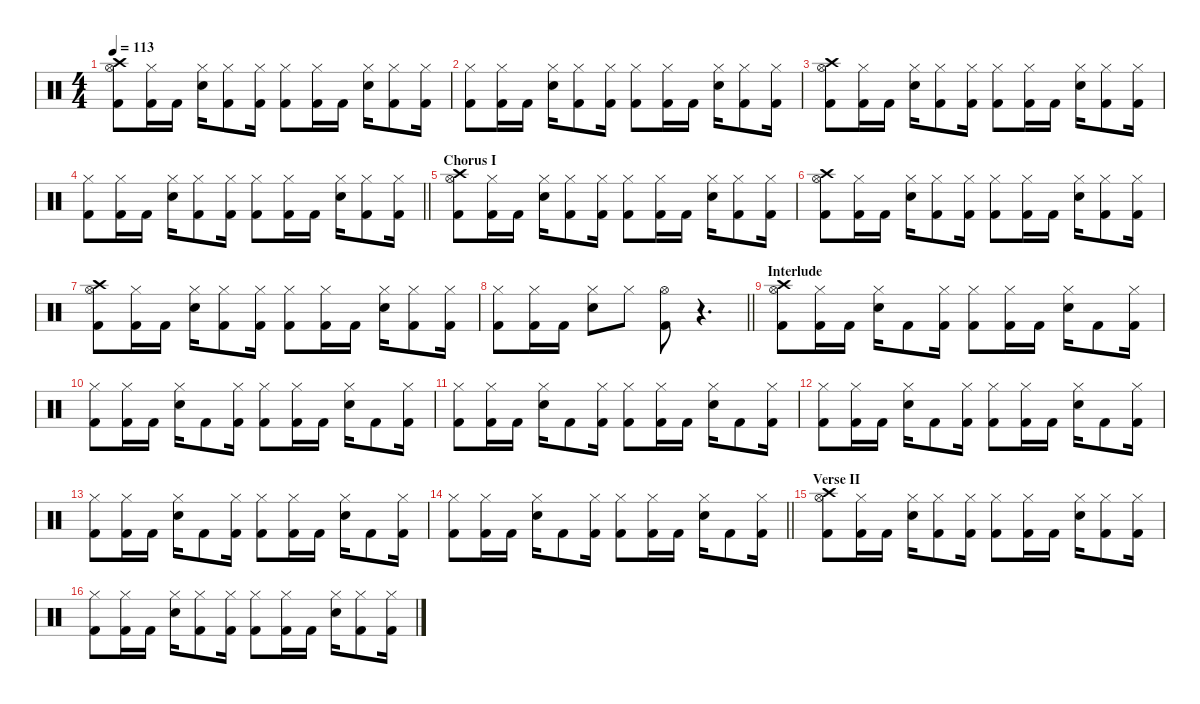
\defaultSystemsLayout 4
\hideDynamics
\bracketExtendMode nobrackets
\singleTrackTrackNamePolicy hidden
\multiTrackTrackNamePolicy hidden
\firstSystemTrackNameMode fullname
\firstSystemTrackNameOrientation horizontal
\otherSystemsTrackNameOrientation horizontal
\track ("Drums" "drm.") {instrument percussion}
\staff {score}
\articulation defaults
\ts (4 4)
\tempo 113
\clef neutral
\ks c
("Crash high (hit)" "Hi-Hat (open)" "Kick (hit) 2").8{dy f beam Down} ("Hi-Hat (closed)" "Kick (hit) 2").16{beam Down} "Kick (hit) 2".16{beam Down} ("Hi-Hat (closed)" "Snare (hit) 2").16{beam Down} ("Hi-Hat (closed)" "Kick (hit) 2").8{beam Down} ("Hi-Hat (closed)" "Kick (hit) 2").16{beam Down} ("Hi-Hat (closed)" "Kick (hit) 2").8{beam Down} ("Hi-Hat (closed)" "Kick (hit) 2").16{beam Down} "Kick (hit) 2".16{beam Down} ("Hi-Hat (closed)" "Snare (hit) 2").16{beam Down} ("Hi-Hat (closed)" "Kick (hit) 2").8{beam Down} ("Hi-Hat (closed)" "Kick (hit) 2").16{beam Down} |
("Hi-Hat (closed)" "Kick (hit) 2").8{beam Down} ("Hi-Hat (closed)" "Kick (hit) 2").16{beam Down} "Kick (hit) 2".16{beam Down} ("Hi-Hat (closed)" "Snare (hit) 2").16{beam Down} ("Hi-Hat (closed)" "Kick (hit) 2").8{beam Down} ("Hi-Hat (closed)" "Kick (hit) 2").16{beam Down} ("Hi-Hat (closed)" "Kick (hit) 2").8{beam Down} ("Hi-Hat (closed)" "Kick (hit) 2").16{beam Down} "Kick (hit) 2".16{beam Down} ("Hi-Hat (closed)" "Snare (hit) 2").16{beam Down} ("Hi-Hat (closed)" "Kick (hit) 2").8{beam Down} ("Hi-Hat (closed)" "Kick (hit) 2").16{beam Down} |
("Crash high (hit)" "Hi-Hat (open)" "Kick (hit) 2").8{beam Down} ("Hi-Hat (closed)" "Kick (hit) 2").16{beam Down} "Kick (hit) 2".16{beam Down} ("Hi-Hat (closed)" "Snare (hit) 2").16{beam Down} ("Hi-Hat (closed)" "Kick (hit) 2").8{beam Down} ("Hi-Hat (closed)" "Kick (hit) 2").16{beam Down} ("Hi-Hat (closed)" "Kick (hit) 2").8{beam Down} ("Hi-Hat (closed)" "Kick (hit) 2").16{beam Down} "Kick (hit) 2".16{beam Down} ("Hi-Hat (closed)" "Snare (hit) 2").16{beam Down} ("Hi-Hat (closed)" "Kick (hit) 2").8{beam Down} ("Hi-Hat (closed)" "Kick (hit) 2").16{beam Down} |
\barLineRight lightlight
("Hi-Hat (closed)" "Kick (hit) 2").8{beam Down} ("Hi-Hat (closed)" "Kick (hit) 2").16{beam Down} "Kick (hit) 2".16{beam Down} ("Hi-Hat (closed)" "Snare (hit) 2").16{beam Down} ("Hi-Hat (closed)" "Kick (hit) 2").8{beam Down} ("Hi-Hat (closed)" "Kick (hit) 2").16{beam Down} ("Hi-Hat (closed)" "Kick (hit) 2").8{beam Down} ("Hi-Hat (closed)" "Kick (hit) 2").16{beam Down} "Kick (hit) 2".16{beam Down} ("Hi-Hat (closed)" "Snare (hit) 2").16{beam Down} ("Hi-Hat (closed)" "Kick (hit) 2").8{beam Down} ("Hi-Hat (closed)" "Kick (hit) 2").16{beam Down} |
\section ("" "Chorus I")
("Crash high (hit)" "Hi-Hat (open)" "Kick (hit) 2").8{beam Down} ("Hi-Hat (closed)" "Kick (hit) 2").16{beam Down} "Kick (hit) 2".16{beam Down} ("Hi-Hat (closed)" "Snare (hit) 2").16{beam Down} ("Hi-Hat (closed)" "Kick (hit) 2").8{beam Down} ("Hi-Hat (closed)" "Kick (hit) 2").16{beam Down} ("Hi-Hat (closed)" "Kick (hit) 2").8{beam Down} ("Hi-Hat (closed)" "Kick (hit) 2").16{beam Down} "Kick (hit) 2".16{beam Down} ("Hi-Hat (closed)" "Snare (hit) 2").16{beam Down} ("Hi-Hat (closed)" "Kick (hit) 2").8{beam Down} ("Hi-Hat (closed)" "Kick (hit) 2").16{beam Down} |
("Crash high (hit)" "Hi-Hat (open)" "Kick (hit) 2").8{beam Down} ("Hi-Hat (closed)" "Kick (hit) 2").16{beam Down} "Kick (hit) 2".16{beam Down} ("Hi-Hat (closed)" "Snare (hit) 2").16{beam Down} ("Hi-Hat (closed)" "Kick (hit) 2").8{beam Down} ("Hi-Hat (closed)" "Kick (hit) 2").16{beam Down} ("Hi-Hat (closed)" "Kick (hit) 2").8{beam Down} ("Hi-Hat (closed)" "Kick (hit) 2").16{beam Down} "Kick (hit) 2".16{beam Down} ("Hi-Hat (closed)" "Snare (hit) 2").16{beam Down} ("Hi-Hat (closed)" "Kick (hit) 2").8{beam Down} ("Hi-Hat (closed)" "Kick (hit) 2").16{beam Down} |
("Crash high (hit)" "Hi-Hat (open)" "Kick (hit) 2").8{beam Down} ("Hi-Hat (closed)" "Kick (hit) 2").16{beam Down} "Kick (hit) 2".16{beam Down} ("Hi-Hat (closed)" "Snare (hit) 2").16{beam Down} ("Hi-Hat (closed)" "Kick (hit) 2").8{beam Down} ("Hi-Hat (closed)" "Kick (hit) 2").16{beam Down} ("Hi-Hat (closed)" "Kick (hit) 2").8{beam Down} ("Hi-Hat (closed)" "Kick (hit) 2").16{beam Down} "Kick (hit) 2".16{beam Down} ("Hi-Hat (closed)" "Snare (hit) 2").16{beam Down} ("Hi-Hat (closed)" "Kick (hit) 2").8{beam Down} ("Hi-Hat (closed)" "Kick (hit) 2").16{beam Down} |
\barLineRight lightlight
("Hi-Hat (closed)" "Kick (hit) 2").8{beam Down} ("Hi-Hat (closed)" "Kick (hit) 2").16{beam Down} "Kick (hit) 2".16{beam Down} ("Hi-Hat (closed)" "Snare (hit) 2").8{beam Down} "Hi-Hat (closed)".8{beam Down} ("Hi-Hat (open)" "Kick (hit) 2").8{beam Down} r.4{d beam Down} |
\section ("" "Interlude")
("Crash high (hit)" "Hi-Hat (open)" "Kick (hit) 2").8{beam Down} ("Hi-Hat (closed)" "Kick (hit) 2").16{beam Down} "Kick (hit) 2".16{beam Down} ("Hi-Hat (closed)" "Snare (hit) 2").16{beam Down} "Kick (hit) 2".8{beam Down} ("Hi-Hat (closed)" "Kick (hit) 2").16{beam Down} ("Hi-Hat (closed)" "Kick (hit) 2").8{beam Down} ("Hi-Hat (closed)" "Kick (hit) 2").16{beam Down} "Kick (hit) 2".16{beam Down} ("Hi-Hat (closed)" "Snare (hit) 2").16{beam Down} "Kick (hit) 2".8{beam Down} ("Hi-Hat (closed)" "Kick (hit) 2").16{beam Down} |
("Hi-Hat (closed)" "Kick (hit) 2").8{beam Down} ("Hi-Hat (closed)" "Kick (hit) 2").16{beam Down} "Kick (hit) 2".16{beam Down} ("Hi-Hat (closed)" "Snare (hit) 2").16{beam Down} "Kick (hit) 2".8{beam Down} ("Hi-Hat (closed)" "Kick (hit) 2").16{beam Down} ("Hi-Hat (closed)" "Kick (hit) 2").8{beam Down} ("Hi-Hat (closed)" "Kick (hit) 2").16{beam Down} "Kick (hit) 2".16{beam Down} ("Hi-Hat (closed)" "Snare (hit) 2").16{beam Down} "Kick (hit) 2".8{beam Down} ("Hi-Hat (closed)" "Kick (hit) 2").16{beam Down} |
("Hi-Hat (closed)" "Kick (hit) 2").8{beam Down} ("Hi-Hat (closed)" "Kick (hit) 2").16{beam Down} "Kick (hit) 2".16{beam Down} ("Hi-Hat (closed)" "Snare (hit) 2").16{beam Down} "Kick (hit) 2".8{beam Down} ("Hi-Hat (closed)" "Kick (hit) 2").16{beam Down} ("Hi-Hat (closed)" "Kick (hit) 2").8{beam Down} ("Hi-Hat (closed)" "Kick (hit) 2").16{beam Down} "Kick (hit) 2".16{beam Down} ("Hi-Hat (closed)" "Snare (hit) 2").16{beam Down} "Kick (hit) 2".8{beam Down} ("Hi-Hat (closed)" "Kick (hit) 2").16{beam Down} |
("Hi-Hat (closed)" "Kick (hit) 2").8{beam Down} ("Hi-Hat (closed)" "Kick (hit) 2").16{beam Down} "Kick (hit) 2".16{beam Down} ("Hi-Hat (closed)" "Snare (hit) 2").16{beam Down} "Kick (hit) 2".8{beam Down} ("Hi-Hat (closed)" "Kick (hit) 2").16{beam Down} ("Hi-Hat (closed)" "Kick (hit) 2").8{beam Down} ("Hi-Hat (closed)" "Kick (hit) 2").16{beam Down} "Kick (hit) 2".16{beam Down} ("Hi-Hat (closed)" "Snare (hit) 2").16{beam Down} "Kick (hit) 2".8{beam Down} ("Hi-Hat (closed)" "Kick (hit) 2").16{beam Down} |
("Hi-Hat (closed)" "Kick (hit) 2").8{beam Down} ("Hi-Hat (closed)" "Kick (hit) 2").16{beam Down} "Kick (hit) 2".16{beam Down} ("Hi-Hat (closed)" "Snare (hit) 2").16{beam Down} "Kick (hit) 2".8{beam Down} ("Hi-Hat (closed)" "Kick (hit) 2").16{beam Down} ("Hi-Hat (closed)" "Kick (hit) 2").8{beam Down} ("Hi-Hat (closed)" "Kick (hit) 2").16{beam Down} "Kick (hit) 2".16{beam Down} ("Hi-Hat (closed)" "Snare (hit) 2").16{beam Down} "Kick (hit) 2".8{beam Down} ("Hi-Hat (closed)" "Kick (hit) 2").16{beam Down} |
\barLineRight lightlight
("Hi-Hat (closed)" "Kick (hit) 2").8{beam Down} ("Hi-Hat (closed)" "Kick (hit) 2").16{beam Down} "Kick (hit) 2".16{beam Down} ("Hi-Hat (closed)" "Snare (hit) 2").16{beam Down} "Kick (hit) 2".8{beam Down} ("Hi-Hat (closed)" "Kick (hit) 2").16{beam Down} ("Hi-Hat (closed)" "Kick (hit) 2").8{beam Down} ("Hi-Hat (closed)" "Kick (hit) 2").16{beam Down} "Kick (hit) 2".16{beam Down} ("Hi-Hat (closed)" "Snare (hit) 2").16{beam Down} "Kick (hit) 2".8{beam Down} ("Hi-Hat (closed)" "Kick (hit) 2").16{beam Down} |
\section ("" "Verse II")
("Crash high (hit)" "Hi-Hat (open)" "Kick (hit) 2").8{beam Down} ("Hi-Hat (closed)" "Kick (hit) 2").16{beam Down} "Kick (hit) 2".16{beam Down} ("Hi-Hat (closed)" "Snare (hit) 2").16{beam Down} ("Hi-Hat (closed)" "Kick (hit) 2").8{beam Down} ("Hi-Hat (closed)" "Kick (hit) 2").16{beam Down} ("Hi-Hat (closed)" "Kick (hit) 2").8{beam Down} ("Hi-Hat (closed)" "Kick (hit) 2").16{beam Down} "Kick (hit) 2".16{beam Down} ("Hi-Hat (closed)" "Snare (hit) 2").16{beam Down} ("Hi-Hat (closed)" "Kick (hit) 2").8{beam Down} ("Hi-Hat (closed)" "Kick (hit) 2").16{beam Down} |
("Hi-Hat (closed)" "Kick (hit) 2").8{beam Down} ("Hi-Hat (closed)" "Kick (hit) 2").16{beam Down} "Kick (hit) 2".16{beam Down} ("Hi-Hat (closed)" "Snare (hit) 2").16{beam Down} ("Hi-Hat (closed)" "Kick (hit) 2").8{beam Down} ("Hi-Hat (closed)" "Kick (hit) 2").16{beam Down} ("Hi-Hat (closed)" "Kick (hit) 2").8{beam Down} ("Hi-Hat (closed)" "Kick (hit) 2").16{beam Down} "Kick (hit) 2".16{beam Down} ("Hi-Hat (closed)" "Snare (hit) 2").16{beam Down} ("Hi-Hat (closed)" "Kick (hit) 2").8{beam Down} ("Hi-Hat (closed)" "Kick (hit) 2").16{beam Down}
